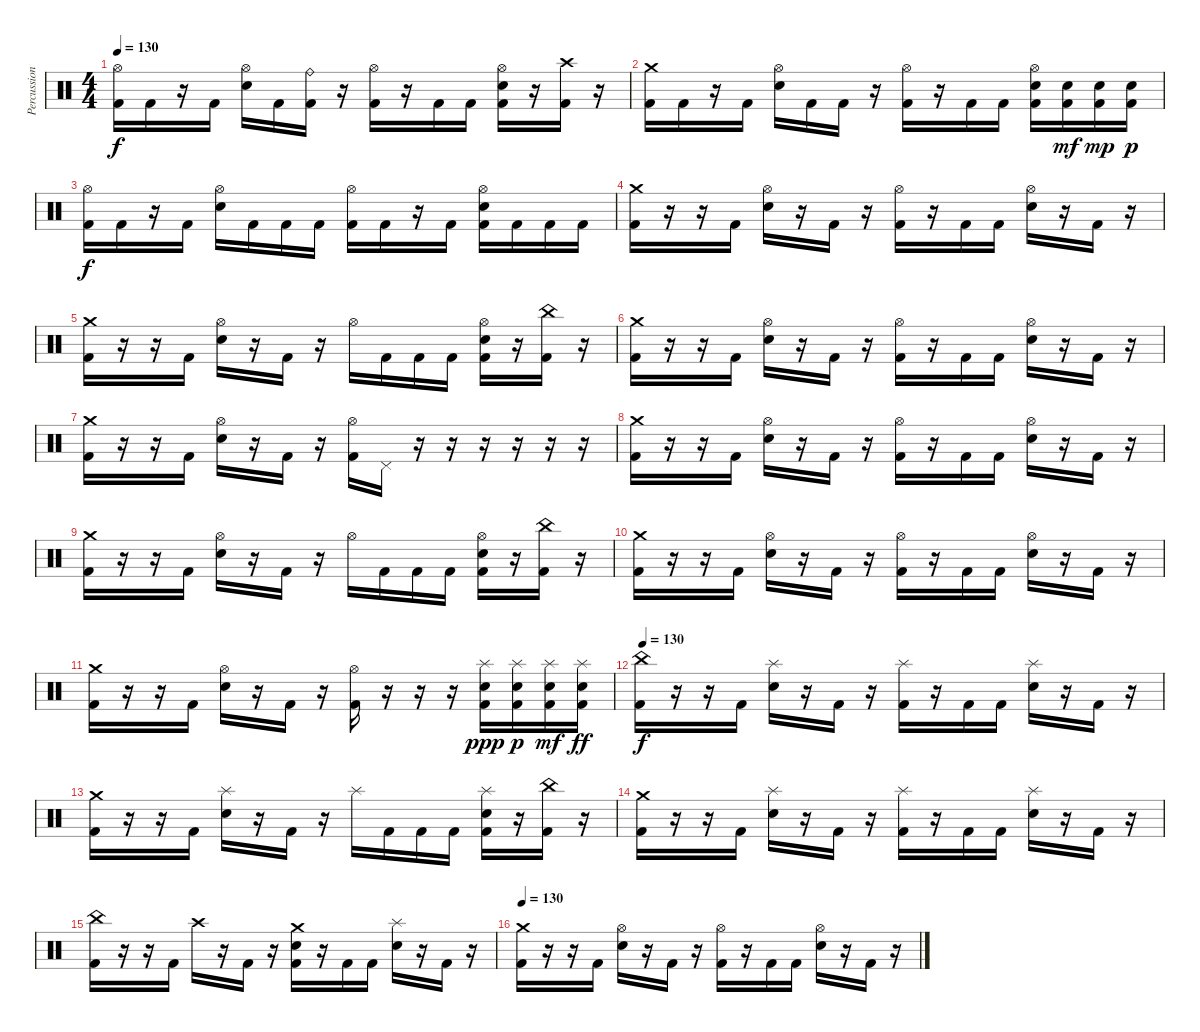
\track ("Percussion" "Percussion") {instrument percussion}
\staff {score}
\articulation defaults
\ts (4 4)
\tempo 130
\clef neutral
\ks c
("Hi-Hat (open)" "Kick (hit) 2").16{dy f} "Kick (hit) 2".16 r.16 "Kick (hit) 2".16 ("Hi-Hat (open)" "Electric Snare (hit)").16 "Kick (hit) 2".16 ("Ride (bell)" "Kick (hit) 2").16 r.16 ("Hi-Hat (open)" "Kick (hit) 2").16 r.16 "Kick (hit) 2".16 "Kick (hit) 2".16 ("Hi-Hat (open)" "Electric Snare (hit)" "Kick (hit) 2").16 r.16 ("Crash high (hit)" "Kick (hit) 2").16 r.16 |
("Crash medium (hit)" "Kick (hit) 2").16 "Kick (hit) 2".16 r.16 "Kick (hit) 2".16 ("Hi-Hat (open)" "Electric Snare (hit)").16 "Kick (hit) 2".16 "Kick (hit) 2".16 r.16 ("Hi-Hat (open)" "Kick (hit) 2").16 r.16 "Kick (hit) 2".16 "Kick (hit) 2".16 ("Hi-Hat (open)" "Electric Snare (hit)" "Kick (hit) 2").16 ("Electric Snare (hit)" "Kick (hit) 2").16{dy mf} ("Electric Snare (hit)" "Kick (hit) 2").16{dy mp} ("Electric Snare (hit)" "Kick (hit) 2").16{dy p} |
("Hi-Hat (open)" "Kick (hit) 2").16{dy f} "Kick (hit) 2".16 r.16 "Kick (hit) 2".16 ("Hi-Hat (open)" "Electric Snare (hit)").16 "Kick (hit) 2".16 "Kick (hit) 2".16 "Kick (hit) 2".16 ("Hi-Hat (open)" "Kick (hit) 2").16 "Kick (hit) 2".16 r.16 "Kick (hit) 2".16 ("Hi-Hat (open)" "Electric Snare (hit)" "Kick (hit) 2").16 "Kick (hit) 2".16 "Kick (hit) 2".16 "Kick (hit) 2".16 |
("Crash medium (hit)" "Kick (hit) 2").16 r.16 r.16 "Kick (hit) 2".16 ("Hi-Hat (open)" "Electric Snare (hit)").16 r.16 "Kick (hit) 2".16 r.16 ("Hi-Hat (open)" "Kick (hit) 2").16 r.16 "Kick (hit) 2".16 "Kick (hit) 2".16 ("Hi-Hat (open)" "Electric Snare (hit)").16 r.16 "Kick (hit) 2".16 r.16 |
("Crash medium (hit)" "Kick (hit) 2").16 r.16 r.16 "Kick (hit) 2".16 ("Hi-Hat (open)" "Electric Snare (hit)").16 r.16 "Kick (hit) 2".16 r.16 "Hi-Hat (open)".16 "Kick (hit) 2".16 "Kick (hit) 2".16 "Kick (hit) 2".16 ("Hi-Hat (open)" "Electric Snare (hit)" "Kick (hit) 2").16 r.16 ("China (hit)" "Kick (hit) 2").16 r.16 |
("Crash medium (hit)" "Kick (hit) 2").16 r.16 r.16 "Kick (hit) 2".16 ("Hi-Hat (open)" "Electric Snare (hit)").16 r.16 "Kick (hit) 2".16 r.16 ("Hi-Hat (open)" "Kick (hit) 2").16 r.16 "Kick (hit) 2".16 "Kick (hit) 2".16 ("Hi-Hat (open)" "Electric Snare (hit)").16 r.16 "Kick (hit) 2".16 r.16 |
("Crash medium (hit)" "Kick (hit) 2").16 r.16 r.16 "Kick (hit) 2".16 ("Hi-Hat (open)" "Electric Snare (hit)").16 r.16 "Kick (hit) 2".16 r.16 ("Hi-Hat (open)" "Kick (hit) 2").16 "Pedal Hi-Hat (hit)".16 r.16 r.16 r.16 r.16 r.16 r.16 |
("Crash medium (hit)" "Kick (hit) 2").16 r.16 r.16 "Kick (hit) 2".16 ("Hi-Hat (open)" "Electric Snare (hit)").16 r.16 "Kick (hit) 2".16 r.16 ("Hi-Hat (open)" "Kick (hit) 2").16 r.16 "Kick (hit) 2".16 "Kick (hit) 2".16 ("Hi-Hat (open)" "Electric Snare (hit)").16 r.16 "Kick (hit) 2".16 r.16 |
("Crash medium (hit)" "Kick (hit) 2").16 r.16 r.16 "Kick (hit) 2".16 ("Hi-Hat (open)" "Electric Snare (hit)").16 r.16 "Kick (hit) 2".16 r.16 "Hi-Hat (open)".16 "Kick (hit) 2".16 "Kick (hit) 2".16 "Kick (hit) 2".16 ("Hi-Hat (open)" "Electric Snare (hit)" "Kick (hit) 2").16 r.16 ("China (hit)" "Kick (hit) 2").16 r.16 |
("Crash medium (hit)" "Kick (hit) 2").16 r.16 r.16 "Kick (hit) 2".16 ("Hi-Hat (open)" "Electric Snare (hit)").16 r.16 "Kick (hit) 2".16 r.16 ("Hi-Hat (open)" "Kick (hit) 2").16 r.16 "Kick (hit) 2".16 "Kick (hit) 2".16 ("Hi-Hat (open)" "Electric Snare (hit)").16 r.16 "Kick (hit) 2".16 r.16 |
("Crash medium (hit)" "Kick (hit) 2").16 r.16 r.16 "Kick (hit) 2".16 ("Hi-Hat (open)" "Electric Snare (hit)").16 r.16 "Kick (hit) 2".16 r.16 ("Hi-Hat (open)" "Kick (hit) 2").16 r.16 r.16 r.16 ("Splash (hit)" "Electric Snare (hit)" "Kick (hit) 2").16{dy ppp} ("Splash (hit)" "Electric Snare (hit)" "Kick (hit) 2").16{dy p} ("Splash (hit)" "Electric Snare (hit)" "Kick (hit) 2").16{dy mf} ("Splash (hit)" "Electric Snare (hit)" "Kick (hit) 2").16{dy ff} |
\tempo 130
("China (hit)" "Kick (hit) 2").16{dy f} r.16 r.16 "Kick (hit) 2".16 ("Splash (hit)" "Electric Snare (hit)").16 r.16 "Kick (hit) 2".16 r.16 ("Splash (hit)" "Kick (hit) 2").16 r.16 "Kick (hit) 2".16 "Kick (hit) 2".16 ("Splash (hit)" "Electric Snare (hit)").16 r.16 "Kick (hit) 2".16 r.16 |
("Crash medium (hit)" "Kick (hit) 2").16 r.16 r.16 "Kick (hit) 2".16 ("Splash (hit)" "Electric Snare (hit)").16 r.16 "Kick (hit) 2".16 r.16 "Splash (hit)".16 "Kick (hit) 2".16 "Kick (hit) 2".16 "Kick (hit) 2".16 ("Splash (hit)" "Electric Snare (hit)" "Kick (hit) 2").16 r.16 ("China (hit)" "Kick (hit) 2").16 r.16 |
("Crash medium (hit)" "Kick (hit) 2").16 r.16 r.16 "Kick (hit) 2".16 ("Splash (hit)" "Electric Snare (hit)").16 r.16 "Kick (hit) 2".16 r.16 ("Splash (hit)" "Kick (hit) 2").16 r.16 "Kick (hit) 2".16 "Kick (hit) 2".16 ("Splash (hit)" "Electric Snare (hit)").16 r.16 "Kick (hit) 2".16 r.16 |
("China (hit)" "Kick (hit) 2").16 r.16 r.16 "Kick (hit) 2".16 "Crash high (hit)".16 r.16 "Kick (hit) 2".16 r.16 ("Crash medium (hit)" "Electric Snare (hit)" "Kick (hit) 2").16 r.16 "Kick (hit) 2".16 "Kick (hit) 2".16 ("Splash (hit)" "Electric Snare (hit)").16 r.16 "Kick (hit) 2".16 r.16 |
\tempo 130
("Crash medium (hit)" "Kick (hit) 2").16 r.16 r.16 "Kick (hit) 2".16 ("Hi-Hat (open)" "Electric Snare (hit)").16 r.16 "Kick (hit) 2".16 r.16 ("Hi-Hat (open)" "Kick (hit) 2").16 r.16 "Kick (hit) 2".16 "Kick (hit) 2".16 ("Hi-Hat (open)" "Electric Snare (hit)").16 r.16 "Kick (hit) 2".16 r.16
